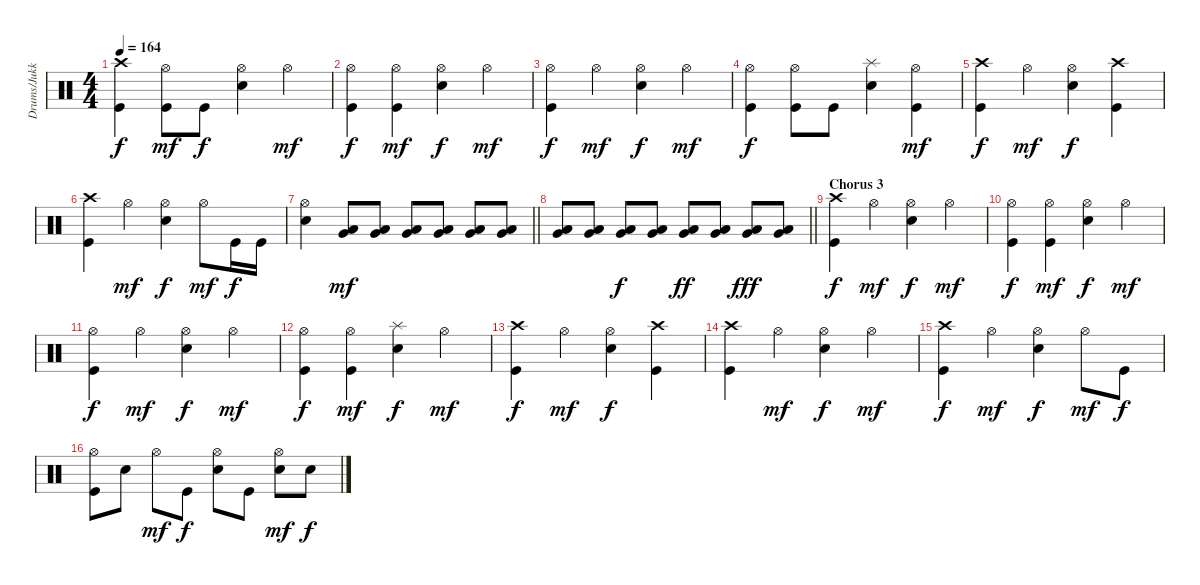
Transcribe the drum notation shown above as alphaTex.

\track ("Drums/Jukka" "Drums/Jukk") {instrument percussion}
\staff {score}
\articulation defaults
\ts (4 4)
\tempo 164
\clef neutral
\ks c
("Crash high (hit)" "Kick (hit)").4{dy f} ("Hi-Hat (open)" "Kick (hit)").8{dy mf} "Kick (hit)".8{dy f} ("Hi-Hat (open)" "Electric Snare (hit)").4 "Hi-Hat (open)".4{dy mf} |
("Hi-Hat (open)" "Kick (hit)").4{dy f} ("Hi-Hat (open)" "Kick (hit)").4{dy mf} ("Hi-Hat (open)" "Electric Snare (hit)").4{dy f} "Hi-Hat (open)".4{dy mf} |
("Hi-Hat (open)" "Kick (hit)").4{dy f} "Hi-Hat (open)".4{dy mf} ("Hi-Hat (open)" "Electric Snare (hit)").4{dy f} "Hi-Hat (open)".4{dy mf} |
("Hi-Hat (open)" "Kick (hit)").4{dy f} ("Hi-Hat (open)" "Kick (hit)").8 "Kick (hit)".8 ("Splash (hit)" "Electric Snare (hit)").4 ("Hi-Hat (open)" "Kick (hit)").4{dy mf} |
("Crash high (hit)" "Kick (hit)").4{dy f} "Hi-Hat (open)".4{dy mf} ("Hi-Hat (open)" "Electric Snare (hit)").4{dy f} ("Crash high (hit)" "Kick (hit)").4 |
("Crash high (hit)" "Kick (hit)").4 "Hi-Hat (open)".4{dy mf} ("Hi-Hat (open)" "Electric Snare (hit)").4{dy f} "Hi-Hat (open)".8{dy mf} "Kick (hit)".16{dy f} "Kick (hit)".16 |
\barLineRight lightlight
("Hi-Hat (open)" "Electric Snare (hit)").4 ("Very Low Tom (hit)" "Low Floor Tom (hit)").8{dy mf} ("Very Low Tom (hit)" "Low Floor Tom (hit)").8 ("Very Low Tom (hit)" "Low Floor Tom (hit)").8 ("Very Low Tom (hit)" "Low Floor Tom (hit)").8 ("Very Low Tom (hit)" "Low Floor Tom (hit)").8 ("Very Low Tom (hit)" "Low Floor Tom (hit)").8 |
\barLineRight lightlight
("Very Low Tom (hit)" "Low Floor Tom (hit)").8 ("Very Low Tom (hit)" "Low Floor Tom (hit)").8 ("Very Low Tom (hit)" "Low Floor Tom (hit)").8{dy f} ("Very Low Tom (hit)" "Low Floor Tom (hit)").8 ("Very Low Tom (hit)" "Low Floor Tom (hit)").8{dy ff} ("Very Low Tom (hit)" "Low Floor Tom (hit)").8 ("Very Low Tom (hit)" "Low Floor Tom (hit)").8{dy fff} ("Very Low Tom (hit)" "Low Floor Tom (hit)").8 |
\section ("" "Chorus 3")
("Crash high (hit)" "Kick (hit)").4{dy f} "Hi-Hat (open)".4{dy mf} ("Hi-Hat (open)" "Electric Snare (hit)").4{dy f} "Hi-Hat (open)".4{dy mf} |
("Hi-Hat (open)" "Kick (hit)").4{dy f} ("Hi-Hat (open)" "Kick (hit)").4{dy mf} ("Hi-Hat (open)" "Electric Snare (hit)").4{dy f} "Hi-Hat (open)".4{dy mf} |
("Hi-Hat (open)" "Kick (hit)").4{dy f} "Hi-Hat (open)".4{dy mf} ("Hi-Hat (open)" "Electric Snare (hit)").4{dy f} "Hi-Hat (open)".4{dy mf} |
("Hi-Hat (open)" "Kick (hit)").4{dy f} ("Hi-Hat (open)" "Kick (hit)").4{dy mf} ("Splash (hit)" "Electric Snare (hit)").4{dy f} "Hi-Hat (open)".4{dy mf} |
("Crash high (hit)" "Kick (hit)").4{dy f} "Hi-Hat (open)".4{dy mf} ("Hi-Hat (open)" "Electric Snare (hit)").4{dy f} ("Crash high (hit)" "Kick (hit)").4 |
("Crash high (hit)" "Kick (hit)").4 "Hi-Hat (open)".4{dy mf} ("Hi-Hat (open)" "Electric Snare (hit)").4{dy f} "Hi-Hat (open)".4{dy mf} |
("Crash high (hit)" "Kick (hit)").4{dy f} "Hi-Hat (open)".4{dy mf} ("Hi-Hat (open)" "Electric Snare (hit)").4{dy f} "Hi-Hat (open)".8{dy mf} "Kick (hit)".8{dy f} |
("Hi-Hat (open)" "Kick (hit)").8 "Electric Snare (hit)".8 "Hi-Hat (open)".8{dy mf} "Kick (hit)".8{dy f} ("Hi-Hat (open)" "Electric Snare (hit)").8 "Kick (hit)".8 ("Hi-Hat (open)" "Electric Snare (hit)").8{dy mf} "Electric Snare (hit)".8{dy f}
